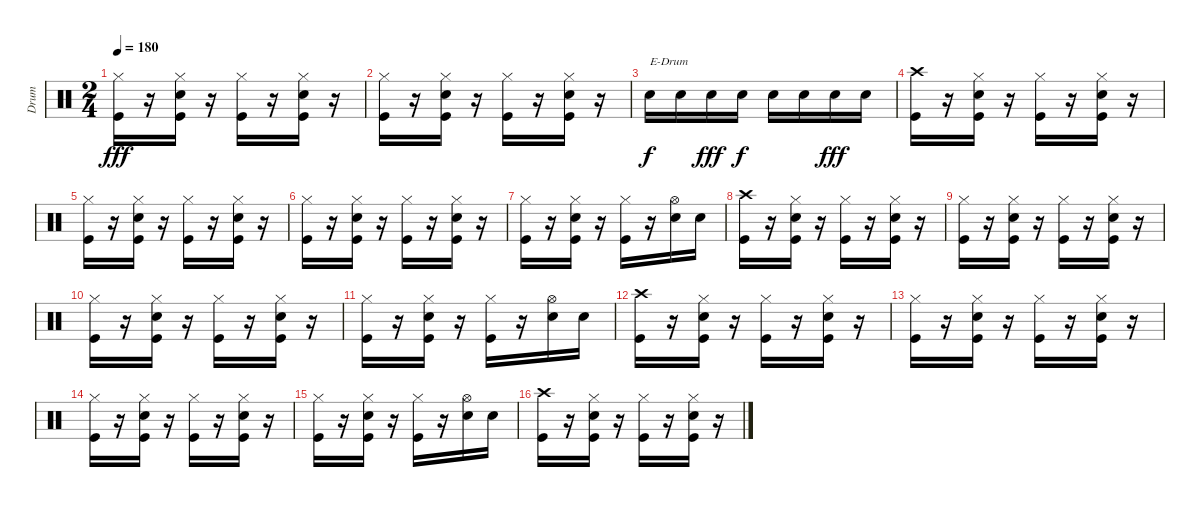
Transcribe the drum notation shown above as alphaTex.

\track ("Drum" "Drum") {instrument percussion}
\staff {score}
\articulation defaults
\ts (2 4)
\tempo 180
\clef neutral
\ks c
("Hi-Hat (closed)" "Kick (hit)").16{dy fff} r.16 ("Hi-Hat (closed)" "Snare (hit) 2" "Kick (hit)").16 r.16 ("Hi-Hat (closed)" "Kick (hit)").16 r.16 ("Hi-Hat (closed)" "Snare (hit) 2" "Kick (hit)").16 r.16 |
("Hi-Hat (closed)" "Kick (hit)").16 r.16 ("Hi-Hat (closed)" "Snare (hit) 2" "Kick (hit)").16 r.16 ("Hi-Hat (closed)" "Kick (hit)").16 r.16 ("Hi-Hat (closed)" "Snare (hit) 2" "Kick (hit)").16 r.16 |
"Snare (hit) 2".16{txt "E-Drum" dy f} "Snare (hit) 2".16 "Snare (hit) 2".16{dy fff} "Snare (hit) 2".16{dy f} "Snare (hit) 2".16 "Snare (hit) 2".16 "Snare (hit) 2".16{dy fff} "Snare (hit) 2".16 |
("Crash high (hit)" "Kick (hit)").16 r.16 ("Hi-Hat (closed)" "Snare (hit) 2" "Kick (hit)").16 r.16 ("Hi-Hat (closed)" "Kick (hit)").16 r.16 ("Hi-Hat (closed)" "Snare (hit) 2" "Kick (hit)").16 r.16 |
("Hi-Hat (closed)" "Kick (hit)").16 r.16 ("Hi-Hat (closed)" "Snare (hit) 2" "Kick (hit)").16 r.16 ("Hi-Hat (closed)" "Kick (hit)").16 r.16 ("Hi-Hat (closed)" "Snare (hit) 2" "Kick (hit)").16 r.16 |
("Hi-Hat (closed)" "Kick (hit)").16 r.16 ("Hi-Hat (closed)" "Snare (hit) 2" "Kick (hit)").16 r.16 ("Hi-Hat (closed)" "Kick (hit)").16 r.16 ("Hi-Hat (closed)" "Snare (hit) 2" "Kick (hit)").16 r.16 |
("Hi-Hat (closed)" "Kick (hit)").16 r.16 ("Hi-Hat (closed)" "Snare (hit) 2" "Kick (hit)").16 r.16 ("Hi-Hat (closed)" "Kick (hit)").16 r.16 ("Hi-Hat (open)" "Snare (hit) 2").16 "Snare (hit) 2".16 |
("Crash high (hit)" "Kick (hit)").16 r.16 ("Hi-Hat (closed)" "Snare (hit) 2" "Kick (hit)").16 r.16 ("Hi-Hat (closed)" "Kick (hit)").16 r.16 ("Hi-Hat (closed)" "Snare (hit) 2" "Kick (hit)").16 r.16 |
("Hi-Hat (closed)" "Kick (hit)").16 r.16 ("Hi-Hat (closed)" "Snare (hit) 2" "Kick (hit)").16 r.16 ("Hi-Hat (closed)" "Kick (hit)").16 r.16 ("Hi-Hat (closed)" "Snare (hit) 2" "Kick (hit)").16 r.16 |
("Hi-Hat (closed)" "Kick (hit)").16 r.16 ("Hi-Hat (closed)" "Snare (hit) 2" "Kick (hit)").16 r.16 ("Hi-Hat (closed)" "Kick (hit)").16 r.16 ("Hi-Hat (closed)" "Snare (hit) 2" "Kick (hit)").16 r.16 |
("Hi-Hat (closed)" "Kick (hit)").16 r.16 ("Hi-Hat (closed)" "Snare (hit) 2" "Kick (hit)").16 r.16 ("Hi-Hat (closed)" "Kick (hit)").16 r.16 ("Hi-Hat (open)" "Snare (hit) 2").16 "Snare (hit) 2".16 |
("Crash high (hit)" "Kick (hit)").16 r.16 ("Hi-Hat (closed)" "Snare (hit) 2" "Kick (hit)").16 r.16 ("Hi-Hat (closed)" "Kick (hit)").16 r.16 ("Hi-Hat (closed)" "Snare (hit) 2" "Kick (hit)").16 r.16 |
("Hi-Hat (closed)" "Kick (hit)").16 r.16 ("Hi-Hat (closed)" "Snare (hit) 2" "Kick (hit)").16 r.16 ("Hi-Hat (closed)" "Kick (hit)").16 r.16 ("Hi-Hat (closed)" "Snare (hit) 2" "Kick (hit)").16 r.16 |
("Hi-Hat (closed)" "Kick (hit)").16 r.16 ("Hi-Hat (closed)" "Snare (hit) 2" "Kick (hit)").16 r.16 ("Hi-Hat (closed)" "Kick (hit)").16 r.16 ("Hi-Hat (closed)" "Snare (hit) 2" "Kick (hit)").16 r.16 |
("Hi-Hat (closed)" "Kick (hit)").16 r.16 ("Hi-Hat (closed)" "Snare (hit) 2" "Kick (hit)").16 r.16 ("Hi-Hat (closed)" "Kick (hit)").16 r.16 ("Hi-Hat (open)" "Snare (hit) 2").16 "Snare (hit) 2".16 |
("Crash high (hit)" "Kick (hit)").16 r.16 ("Hi-Hat (closed)" "Snare (hit) 2" "Kick (hit)").16 r.16 ("Hi-Hat (closed)" "Kick (hit)").16 r.16 ("Hi-Hat (closed)" "Snare (hit) 2" "Kick (hit)").16 r.16
